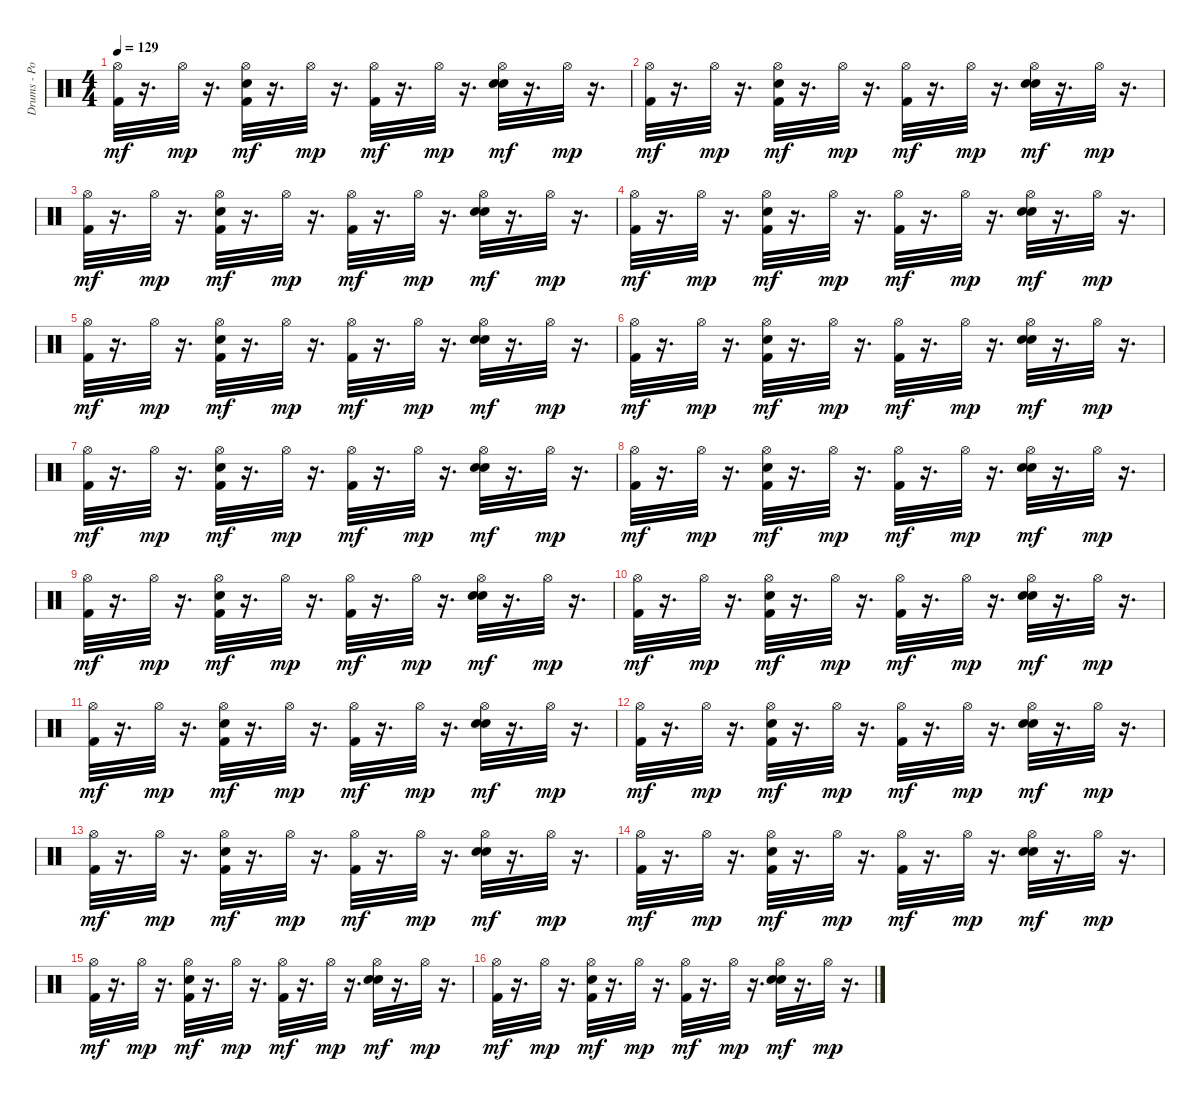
\track ("Drums - Po" "Drums - Po") {instrument percussion}
\staff {score}
\articulation defaults
\ts (4 4)
\tempo 129
\clef neutral
\ks c
("Kick (hit) 2" "Hi-Hat (open)").32{dy mf} r.16{d} "Hi-Hat (open)".32{dy mp} r.16{d} ("Kick (hit) 2" "Snare (hit) 2" "Hi-Hat (open)").32{dy mf} r.16{d} "Hi-Hat (open)".32{dy mp} r.16{d} ("Kick (hit) 2" "Hi-Hat (open)").32{dy mf} r.16{d} "Hi-Hat (open)".32{dy mp} r.16{d} ("Snare (hit) 2" "Hand Clap (hit)" "Hi-Hat (open)").32{dy mf} r.16{d} "Hi-Hat (open)".32{dy mp} r.16{d} |
("Kick (hit) 2" "Hi-Hat (open)").32{dy mf} r.16{d} "Hi-Hat (open)".32{dy mp} r.16{d} ("Kick (hit) 2" "Snare (hit) 2" "Hi-Hat (open)").32{dy mf} r.16{d} "Hi-Hat (open)".32{dy mp} r.16{d} ("Kick (hit) 2" "Hi-Hat (open)").32{dy mf} r.16{d} "Hi-Hat (open)".32{dy mp} r.16{d} ("Snare (hit) 2" "Hand Clap (hit)" "Hi-Hat (open)").32{dy mf} r.16{d} "Hi-Hat (open)".32{dy mp} r.16{d} |
("Kick (hit) 2" "Hi-Hat (open)").32{dy mf} r.16{d} "Hi-Hat (open)".32{dy mp} r.16{d} ("Kick (hit) 2" "Snare (hit) 2" "Hi-Hat (open)").32{dy mf} r.16{d} "Hi-Hat (open)".32{dy mp} r.16{d} ("Kick (hit) 2" "Hi-Hat (open)").32{dy mf} r.16{d} "Hi-Hat (open)".32{dy mp} r.16{d} ("Snare (hit) 2" "Hand Clap (hit)" "Hi-Hat (open)").32{dy mf} r.16{d} "Hi-Hat (open)".32{dy mp} r.16{d} |
("Kick (hit) 2" "Hi-Hat (open)").32{dy mf} r.16{d} "Hi-Hat (open)".32{dy mp} r.16{d} ("Kick (hit) 2" "Snare (hit) 2" "Hi-Hat (open)").32{dy mf} r.16{d} "Hi-Hat (open)".32{dy mp} r.16{d} ("Kick (hit) 2" "Hi-Hat (open)").32{dy mf} r.16{d} "Hi-Hat (open)".32{dy mp} r.16{d} ("Snare (hit) 2" "Hand Clap (hit)" "Hi-Hat (open)").32{dy mf} r.16{d} "Hi-Hat (open)".32{dy mp} r.16{d} |
("Kick (hit) 2" "Hi-Hat (open)").32{dy mf} r.16{d} "Hi-Hat (open)".32{dy mp} r.16{d} ("Kick (hit) 2" "Snare (hit) 2" "Hi-Hat (open)").32{dy mf} r.16{d} "Hi-Hat (open)".32{dy mp} r.16{d} ("Kick (hit) 2" "Hi-Hat (open)").32{dy mf} r.16{d} "Hi-Hat (open)".32{dy mp} r.16{d} ("Snare (hit) 2" "Hand Clap (hit)" "Hi-Hat (open)").32{dy mf} r.16{d} "Hi-Hat (open)".32{dy mp} r.16{d} |
("Kick (hit) 2" "Hi-Hat (open)").32{dy mf} r.16{d} "Hi-Hat (open)".32{dy mp} r.16{d} ("Kick (hit) 2" "Snare (hit) 2" "Hi-Hat (open)").32{dy mf} r.16{d} "Hi-Hat (open)".32{dy mp} r.16{d} ("Kick (hit) 2" "Hi-Hat (open)").32{dy mf} r.16{d} "Hi-Hat (open)".32{dy mp} r.16{d} ("Snare (hit) 2" "Hand Clap (hit)" "Hi-Hat (open)").32{dy mf} r.16{d} "Hi-Hat (open)".32{dy mp} r.16{d} |
("Kick (hit) 2" "Hi-Hat (open)").32{dy mf} r.16{d} "Hi-Hat (open)".32{dy mp} r.16{d} ("Kick (hit) 2" "Snare (hit) 2" "Hi-Hat (open)").32{dy mf} r.16{d} "Hi-Hat (open)".32{dy mp} r.16{d} ("Kick (hit) 2" "Hi-Hat (open)").32{dy mf} r.16{d} "Hi-Hat (open)".32{dy mp} r.16{d} ("Snare (hit) 2" "Hand Clap (hit)" "Hi-Hat (open)").32{dy mf} r.16{d} "Hi-Hat (open)".32{dy mp} r.16{d} |
("Kick (hit) 2" "Hi-Hat (open)").32{dy mf} r.16{d} "Hi-Hat (open)".32{dy mp} r.16{d} ("Kick (hit) 2" "Snare (hit) 2" "Hi-Hat (open)").32{dy mf} r.16{d} "Hi-Hat (open)".32{dy mp} r.16{d} ("Kick (hit) 2" "Hi-Hat (open)").32{dy mf} r.16{d} "Hi-Hat (open)".32{dy mp} r.16{d} ("Snare (hit) 2" "Hand Clap (hit)" "Hi-Hat (open)").32{dy mf} r.16{d} "Hi-Hat (open)".32{dy mp} r.16{d} |
("Kick (hit) 2" "Hi-Hat (open)").32{dy mf} r.16{d} "Hi-Hat (open)".32{dy mp} r.16{d} ("Kick (hit) 2" "Snare (hit) 2" "Hi-Hat (open)").32{dy mf} r.16{d} "Hi-Hat (open)".32{dy mp} r.16{d} ("Kick (hit) 2" "Hi-Hat (open)").32{dy mf} r.16{d} "Hi-Hat (open)".32{dy mp} r.16{d} ("Snare (hit) 2" "Hand Clap (hit)" "Hi-Hat (open)").32{dy mf} r.16{d} "Hi-Hat (open)".32{dy mp} r.16{d} |
("Kick (hit) 2" "Hi-Hat (open)").32{dy mf} r.16{d} "Hi-Hat (open)".32{dy mp} r.16{d} ("Kick (hit) 2" "Snare (hit) 2" "Hi-Hat (open)").32{dy mf} r.16{d} "Hi-Hat (open)".32{dy mp} r.16{d} ("Kick (hit) 2" "Hi-Hat (open)").32{dy mf} r.16{d} "Hi-Hat (open)".32{dy mp} r.16{d} ("Snare (hit) 2" "Hand Clap (hit)" "Hi-Hat (open)").32{dy mf} r.16{d} "Hi-Hat (open)".32{dy mp} r.16{d} |
("Kick (hit) 2" "Hi-Hat (open)").32{dy mf} r.16{d} "Hi-Hat (open)".32{dy mp} r.16{d} ("Kick (hit) 2" "Snare (hit) 2" "Hi-Hat (open)").32{dy mf} r.16{d} "Hi-Hat (open)".32{dy mp} r.16{d} ("Kick (hit) 2" "Hi-Hat (open)").32{dy mf} r.16{d} "Hi-Hat (open)".32{dy mp} r.16{d} ("Snare (hit) 2" "Hand Clap (hit)" "Hi-Hat (open)").32{dy mf} r.16{d} "Hi-Hat (open)".32{dy mp} r.16{d} |
("Kick (hit) 2" "Hi-Hat (open)").32{dy mf} r.16{d} "Hi-Hat (open)".32{dy mp} r.16{d} ("Kick (hit) 2" "Snare (hit) 2" "Hi-Hat (open)").32{dy mf} r.16{d} "Hi-Hat (open)".32{dy mp} r.16{d} ("Kick (hit) 2" "Hi-Hat (open)").32{dy mf} r.16{d} "Hi-Hat (open)".32{dy mp} r.16{d} ("Snare (hit) 2" "Hand Clap (hit)" "Hi-Hat (open)").32{dy mf} r.16{d} "Hi-Hat (open)".32{dy mp} r.16{d} |
("Kick (hit) 2" "Hi-Hat (open)").32{dy mf} r.16{d} "Hi-Hat (open)".32{dy mp} r.16{d} ("Kick (hit) 2" "Snare (hit) 2" "Hi-Hat (open)").32{dy mf} r.16{d} "Hi-Hat (open)".32{dy mp} r.16{d} ("Kick (hit) 2" "Hi-Hat (open)").32{dy mf} r.16{d} "Hi-Hat (open)".32{dy mp} r.16{d} ("Snare (hit) 2" "Hand Clap (hit)" "Hi-Hat (open)").32{dy mf} r.16{d} "Hi-Hat (open)".32{dy mp} r.16{d} |
("Kick (hit) 2" "Hi-Hat (open)").32{dy mf} r.16{d} "Hi-Hat (open)".32{dy mp} r.16{d} ("Kick (hit) 2" "Snare (hit) 2" "Hi-Hat (open)").32{dy mf} r.16{d} "Hi-Hat (open)".32{dy mp} r.16{d} ("Kick (hit) 2" "Hi-Hat (open)").32{dy mf} r.16{d} "Hi-Hat (open)".32{dy mp} r.16{d} ("Snare (hit) 2" "Hand Clap (hit)" "Hi-Hat (open)").32{dy mf} r.16{d} "Hi-Hat (open)".32{dy mp} r.16{d} |
("Kick (hit) 2" "Hi-Hat (open)").32{dy mf} r.16{d} "Hi-Hat (open)".32{dy mp} r.16{d} ("Kick (hit) 2" "Snare (hit) 2" "Hi-Hat (open)").32{dy mf} r.16{d} "Hi-Hat (open)".32{dy mp} r.16{d} ("Kick (hit) 2" "Hi-Hat (open)").32{dy mf} r.16{d} "Hi-Hat (open)".32{dy mp} r.16{d} ("Snare (hit) 2" "Hand Clap (hit)" "Hi-Hat (open)").32{dy mf} r.16{d} "Hi-Hat (open)".32{dy mp} r.16{d} |
("Kick (hit) 2" "Hi-Hat (open)").32{dy mf} r.16{d} "Hi-Hat (open)".32{dy mp} r.16{d} ("Kick (hit) 2" "Snare (hit) 2" "Hi-Hat (open)").32{dy mf} r.16{d} "Hi-Hat (open)".32{dy mp} r.16{d} ("Kick (hit) 2" "Hi-Hat (open)").32{dy mf} r.16{d} "Hi-Hat (open)".32{dy mp} r.16{d} ("Snare (hit) 2" "Hand Clap (hit)" "Hi-Hat (open)").32{dy mf} r.16{d} "Hi-Hat (open)".32{dy mp} r.16{d}
